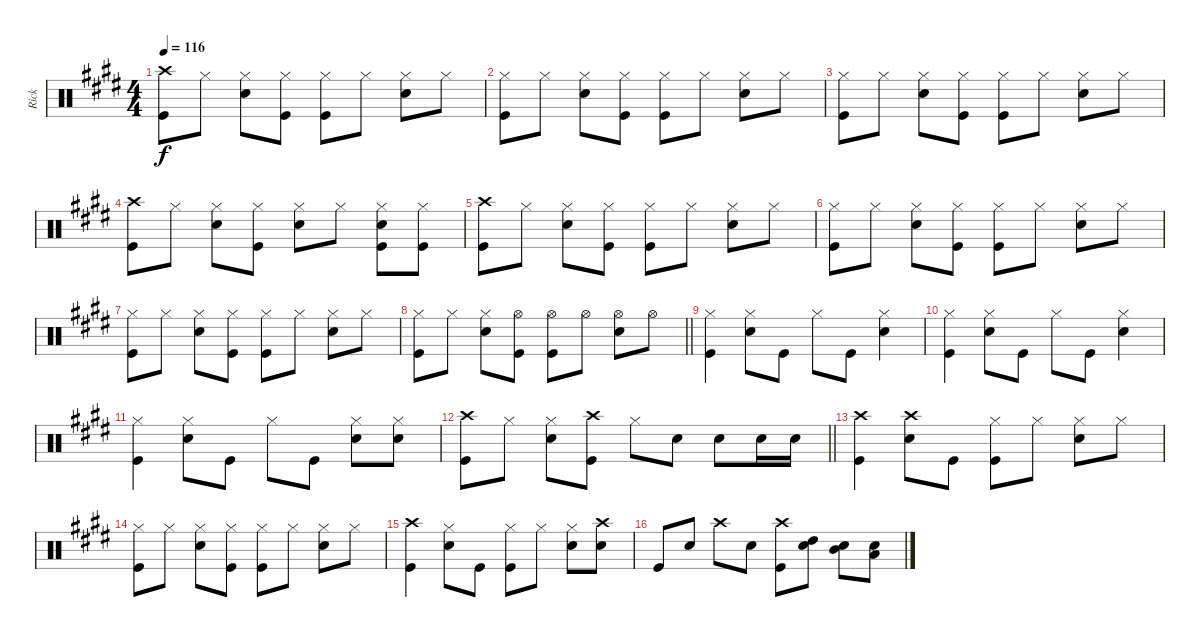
\track ("Rick" "Rick") {instrument percussion}
\staff {score}
\articulation defaults
\ts (4 4)
\tempo 116
\clef neutral
\ks e
("Crash high (hit)" "Kick (hit)").8{dy f} "Hi-Hat (closed)".8 ("Hi-Hat (closed)" "Snare (hit) 2").8 ("Hi-Hat (closed)" "Kick (hit)").8 ("Hi-Hat (closed)" "Kick (hit)").8 "Hi-Hat (closed)".8 ("Hi-Hat (closed)" "Snare (hit) 2").8 "Hi-Hat (closed)".8 |
("Hi-Hat (closed)" "Kick (hit)").8 "Hi-Hat (closed)".8 ("Hi-Hat (closed)" "Snare (hit) 2").8 ("Hi-Hat (closed)" "Kick (hit)").8 ("Hi-Hat (closed)" "Kick (hit)").8 "Hi-Hat (closed)".8 ("Hi-Hat (closed)" "Snare (hit) 2").8 "Hi-Hat (closed)".8 |
("Hi-Hat (closed)" "Kick (hit)").8 "Hi-Hat (closed)".8 ("Hi-Hat (closed)" "Snare (hit) 2").8 ("Hi-Hat (closed)" "Kick (hit)").8 ("Hi-Hat (closed)" "Kick (hit)").8 "Hi-Hat (closed)".8 ("Hi-Hat (closed)" "Snare (hit) 2").8 "Hi-Hat (closed)".8 |
("Crash high (hit)" "Kick (hit)").8 "Hi-Hat (closed)".8 ("Hi-Hat (closed)" "Snare (hit) 2").8 ("Hi-Hat (closed)" "Kick (hit)").8 ("Hi-Hat (closed)" "Snare (hit) 2").8 "Hi-Hat (closed)".8 ("Hi-Hat (closed)" "Snare (hit) 2" "Kick (hit)").8 ("Hi-Hat (closed)" "Kick (hit)").8 |
("Crash high (hit)" "Kick (hit)").8 "Hi-Hat (closed)".8 ("Hi-Hat (closed)" "Snare (hit) 2").8 ("Hi-Hat (closed)" "Kick (hit)").8 ("Hi-Hat (closed)" "Kick (hit)").8 "Hi-Hat (closed)".8 ("Hi-Hat (closed)" "Snare (hit) 2").8 "Hi-Hat (closed)".8 |
("Hi-Hat (closed)" "Kick (hit)").8 "Hi-Hat (closed)".8 ("Hi-Hat (closed)" "Snare (hit) 2").8 ("Hi-Hat (closed)" "Kick (hit)").8 ("Hi-Hat (closed)" "Kick (hit)").8 "Hi-Hat (closed)".8 ("Hi-Hat (closed)" "Snare (hit) 2").8 "Hi-Hat (closed)".8 |
("Hi-Hat (closed)" "Kick (hit)").8 "Hi-Hat (closed)".8 ("Hi-Hat (closed)" "Snare (hit) 2").8 ("Hi-Hat (closed)" "Kick (hit)").8 ("Hi-Hat (closed)" "Kick (hit)").8 "Hi-Hat (closed)".8 ("Hi-Hat (closed)" "Snare (hit) 2").8 "Hi-Hat (closed)".8 |
\barLineRight lightlight
("Hi-Hat (closed)" "Kick (hit)").8 "Hi-Hat (closed)".8 ("Hi-Hat (closed)" "Snare (hit) 2").8 ("Hi-Hat (open)" "Kick (hit)").8 ("Hi-Hat (open)" "Kick (hit)").8 "Hi-Hat (open)".8 ("Hi-Hat (open)" "Snare (hit) 2").8 "Hi-Hat (open)".8 |
("Hi-Hat (closed)" "Kick (hit)").4 ("Hi-Hat (closed)" "Snare (hit) 2").8 "Kick (hit)".8 "Hi-Hat (closed)".8 "Kick (hit)".8 ("Hi-Hat (closed)" "Snare (hit) 2").4 |
("Hi-Hat (closed)" "Kick (hit)").4 ("Hi-Hat (closed)" "Snare (hit) 2").8 "Kick (hit)".8 "Hi-Hat (closed)".8 "Kick (hit)".8 ("Hi-Hat (closed)" "Snare (hit) 2").4 |
("Hi-Hat (closed)" "Kick (hit)").4 ("Hi-Hat (closed)" "Snare (hit) 2").8 "Kick (hit)".8 "Hi-Hat (closed)".8 "Kick (hit)".8 ("Hi-Hat (closed)" "Snare (hit) 2").8 ("Hi-Hat (closed)" "Snare (hit) 2").8 |
\barLineRight lightlight
("Crash high (hit)" "Kick (hit)").8 "Hi-Hat (closed)".8 ("Hi-Hat (closed)" "Snare (hit) 2").8 ("Crash high (hit)" "Kick (hit)").8 "Hi-Hat (closed)".8 "Snare (hit) 2".8 "Snare (hit) 2".8 "Snare (hit) 2".16 "Snare (hit) 2".16 |
("Crash high (hit)" "Kick (hit)").4 ("Crash high (hit)" "Snare (hit) 2").8 "Kick (hit)".8 ("Hi-Hat (closed)" "Kick (hit)").8 "Hi-Hat (closed)".8 ("Hi-Hat (closed)" "Snare (hit) 2").8 "Hi-Hat (closed)".8 |
("Hi-Hat (closed)" "Kick (hit)").8 "Hi-Hat (closed)".8 ("Hi-Hat (closed)" "Snare (hit) 2").8 ("Hi-Hat (closed)" "Kick (hit)").8 ("Hi-Hat (closed)" "Kick (hit)").8 "Hi-Hat (closed)".8 ("Hi-Hat (closed)" "Snare (hit) 2").8 "Hi-Hat (closed)".8 |
("Crash high (hit)" "Kick (hit)").4 ("Hi-Hat (closed)" "Snare (hit) 2").8 "Kick (hit)".8 ("Hi-Hat (closed)" "Kick (hit)").8 "Hi-Hat (closed)".8 ("Hi-Hat (closed)" "Snare (hit) 2").8 ("Crash high (hit)" "Snare (hit) 2").8 |
"Kick (hit)".8 "Snare (hit) 2".8 "Crash high (hit)".8 "Snare (hit) 2".8 ("Crash high (hit)" "Kick (hit)").8 ("High Tom (hit)" "Snare (hit) 2").8 ("Mid Tom (hit)" "Snare (hit) 2").8 ("Low Tom (hit)" "Snare (hit) 2").8
